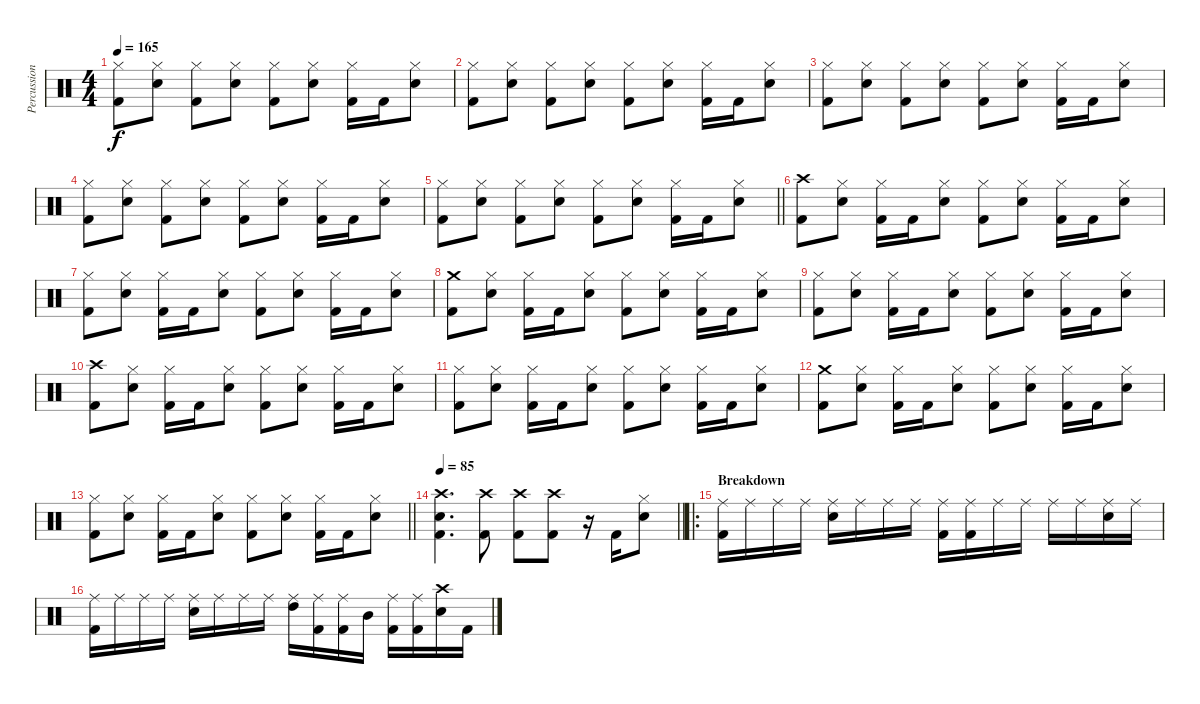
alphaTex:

\track ("Percussion" "Percussion") {instrument percussion}
\staff {score}
\articulation defaults
\ts (4 4)
\tempo 165
\clef neutral
\ks c
("Hi-Hat (closed)" "Kick (hit) 2").8{dy f} ("Hi-Hat (closed)" "Electric Snare (hit)").8 ("Hi-Hat (closed)" "Kick (hit) 2").8 ("Hi-Hat (closed)" "Electric Snare (hit)").8 ("Hi-Hat (closed)" "Kick (hit) 2").8 ("Hi-Hat (closed)" "Electric Snare (hit)").8 ("Hi-Hat (closed)" "Kick (hit) 2").16 "Kick (hit) 2".16 ("Hi-Hat (closed)" "Electric Snare (hit)").8 |
("Hi-Hat (closed)" "Kick (hit) 2").8 ("Hi-Hat (closed)" "Electric Snare (hit)").8 ("Hi-Hat (closed)" "Kick (hit) 2").8 ("Hi-Hat (closed)" "Electric Snare (hit)").8 ("Hi-Hat (closed)" "Kick (hit) 2").8 ("Hi-Hat (closed)" "Electric Snare (hit)").8 ("Hi-Hat (closed)" "Kick (hit) 2").16 "Kick (hit) 2".16 ("Hi-Hat (closed)" "Electric Snare (hit)").8 |
("Hi-Hat (closed)" "Kick (hit) 2").8 ("Hi-Hat (closed)" "Electric Snare (hit)").8 ("Hi-Hat (closed)" "Kick (hit) 2").8 ("Hi-Hat (closed)" "Electric Snare (hit)").8 ("Hi-Hat (closed)" "Kick (hit) 2").8 ("Hi-Hat (closed)" "Electric Snare (hit)").8 ("Hi-Hat (closed)" "Kick (hit) 2").16 "Kick (hit) 2".16 ("Hi-Hat (closed)" "Electric Snare (hit)").8 |
("Hi-Hat (closed)" "Kick (hit) 2").8 ("Hi-Hat (closed)" "Electric Snare (hit)").8 ("Hi-Hat (closed)" "Kick (hit) 2").8 ("Hi-Hat (closed)" "Electric Snare (hit)").8 ("Hi-Hat (closed)" "Kick (hit) 2").8 ("Hi-Hat (closed)" "Electric Snare (hit)").8 ("Hi-Hat (closed)" "Kick (hit) 2").16 "Kick (hit) 2".16 ("Hi-Hat (closed)" "Electric Snare (hit)").8 |
\barLineRight lightlight
("Hi-Hat (closed)" "Kick (hit) 2").8 ("Hi-Hat (closed)" "Electric Snare (hit)").8 ("Hi-Hat (closed)" "Kick (hit) 2").8 ("Hi-Hat (closed)" "Electric Snare (hit)").8 ("Hi-Hat (closed)" "Kick (hit) 2").8 ("Hi-Hat (closed)" "Electric Snare (hit)").8 ("Hi-Hat (closed)" "Kick (hit) 2").16 "Kick (hit) 2".16 ("Hi-Hat (closed)" "Electric Snare (hit)").8 |
("Crash high (hit)" "Kick (hit) 2").8 ("Hi-Hat (closed)" "Electric Snare (hit)").8 ("Hi-Hat (closed)" "Kick (hit) 2").16 "Kick (hit) 2".16 ("Hi-Hat (closed)" "Electric Snare (hit)").8 ("Hi-Hat (closed)" "Kick (hit) 2").8 ("Hi-Hat (closed)" "Electric Snare (hit)").8 ("Hi-Hat (closed)" "Kick (hit) 2").16 "Kick (hit) 2".16 ("Hi-Hat (closed)" "Electric Snare (hit)").8 |
("Hi-Hat (closed)" "Kick (hit) 2").8 ("Hi-Hat (closed)" "Electric Snare (hit)").8 ("Hi-Hat (closed)" "Kick (hit) 2").16 "Kick (hit) 2".16 ("Hi-Hat (closed)" "Electric Snare (hit)").8 ("Hi-Hat (closed)" "Kick (hit) 2").8 ("Hi-Hat (closed)" "Electric Snare (hit)").8 ("Hi-Hat (closed)" "Kick (hit) 2").16 "Kick (hit) 2".16 ("Hi-Hat (closed)" "Electric Snare (hit)").8 |
("Crash medium (hit)" "Kick (hit) 2").8 ("Hi-Hat (closed)" "Electric Snare (hit)").8 ("Hi-Hat (closed)" "Kick (hit) 2").16 "Kick (hit) 2".16 ("Hi-Hat (closed)" "Electric Snare (hit)").8 ("Hi-Hat (closed)" "Kick (hit) 2").8 ("Hi-Hat (closed)" "Electric Snare (hit)").8 ("Hi-Hat (closed)" "Kick (hit) 2").16 "Kick (hit) 2".16 ("Hi-Hat (closed)" "Electric Snare (hit)").8 |
("Hi-Hat (closed)" "Kick (hit) 2").8 ("Hi-Hat (closed)" "Electric Snare (hit)").8 ("Hi-Hat (closed)" "Kick (hit) 2").16 "Kick (hit) 2".16 ("Hi-Hat (closed)" "Electric Snare (hit)").8 ("Hi-Hat (closed)" "Kick (hit) 2").8 ("Hi-Hat (closed)" "Electric Snare (hit)").8 ("Hi-Hat (closed)" "Kick (hit) 2").16 "Kick (hit) 2".16 ("Hi-Hat (closed)" "Electric Snare (hit)").8 |
("Crash high (hit)" "Kick (hit) 2").8 ("Hi-Hat (closed)" "Electric Snare (hit)").8 ("Hi-Hat (closed)" "Kick (hit) 2").16 "Kick (hit) 2".16 ("Hi-Hat (closed)" "Electric Snare (hit)").8 ("Hi-Hat (closed)" "Kick (hit) 2").8 ("Hi-Hat (closed)" "Electric Snare (hit)").8 ("Hi-Hat (closed)" "Kick (hit) 2").16 "Kick (hit) 2".16 ("Hi-Hat (closed)" "Electric Snare (hit)").8 |
("Hi-Hat (closed)" "Kick (hit) 2").8 ("Hi-Hat (closed)" "Electric Snare (hit)").8 ("Hi-Hat (closed)" "Kick (hit) 2").16 "Kick (hit) 2".16 ("Hi-Hat (closed)" "Electric Snare (hit)").8 ("Hi-Hat (closed)" "Kick (hit) 2").8 ("Hi-Hat (closed)" "Electric Snare (hit)").8 ("Hi-Hat (closed)" "Kick (hit) 2").16 "Kick (hit) 2".16 ("Hi-Hat (closed)" "Electric Snare (hit)").8 |
("Crash medium (hit)" "Kick (hit) 2").8 ("Hi-Hat (closed)" "Electric Snare (hit)").8 ("Hi-Hat (closed)" "Kick (hit) 2").16 "Kick (hit) 2".16 ("Hi-Hat (closed)" "Electric Snare (hit)").8 ("Hi-Hat (closed)" "Kick (hit) 2").8 ("Hi-Hat (closed)" "Electric Snare (hit)").8 ("Hi-Hat (closed)" "Kick (hit) 2").16 "Kick (hit) 2".16 ("Hi-Hat (closed)" "Electric Snare (hit)").8 |
\barLineRight lightlight
("Hi-Hat (closed)" "Kick (hit) 2").8 ("Hi-Hat (closed)" "Electric Snare (hit)").8 ("Hi-Hat (closed)" "Kick (hit) 2").16 "Kick (hit) 2".16 ("Hi-Hat (closed)" "Electric Snare (hit)").8 ("Hi-Hat (closed)" "Kick (hit) 2").8 ("Hi-Hat (closed)" "Electric Snare (hit)").8 ("Hi-Hat (closed)" "Kick (hit) 2").16 "Kick (hit) 2".16 ("Hi-Hat (closed)" "Electric Snare (hit)").8 |
\tempo 85
\barLineRight lightlight
("Crash high (hit)" "Electric Snare (hit)" "Kick (hit) 2").4{d} ("Crash high (hit)" "Kick (hit) 2").8 ("Crash high (hit)" "Kick (hit) 2").8 ("Crash high (hit)" "Kick (hit) 2").8 r.16 "Kick (hit) 2".16 ("Hi-Hat (closed)" "Electric Snare (hit)").8 |
\ro
\section ("" "Breakdown")
("Ride (middle)" "Kick (hit) 2").16 "Ride (middle)".16 "Ride (middle)".16 "Ride (middle)".16 ("Ride (middle)" "Electric Snare (hit)").16 "Ride (middle)".16 "Ride (middle)".16 "Ride (middle)".16 ("Ride (middle)" "Kick (hit) 2").16 ("Ride (middle)" "Kick (hit) 2").16 "Ride (middle)".16 "Ride (middle)".16 "Ride (middle)".16 "Ride (middle)".16 ("Ride (middle)" "Electric Snare (hit)").16 "Ride (middle)".16 |
("Ride (middle)" "Kick (hit) 2").16 "Ride (middle)".16 "Ride (middle)".16 "Ride (middle)".16 ("Ride (middle)" "Electric Snare (hit)").16 "Ride (middle)".16 "Ride (middle)".16 "Ride (middle)".16 ("Ride (middle)" "High Tom (hit)").16 ("Ride (middle)" "Kick (hit) 2").16 ("Ride (middle)" "Kick (hit) 2").16 "Mid Tom (hit)".16 ("Ride (middle)" "Kick (hit) 2").16 ("Ride (middle)" "Kick (hit) 2").16 ("Crash high (hit)" "Electric Snare (hit)").16 "Kick (hit) 2".16
